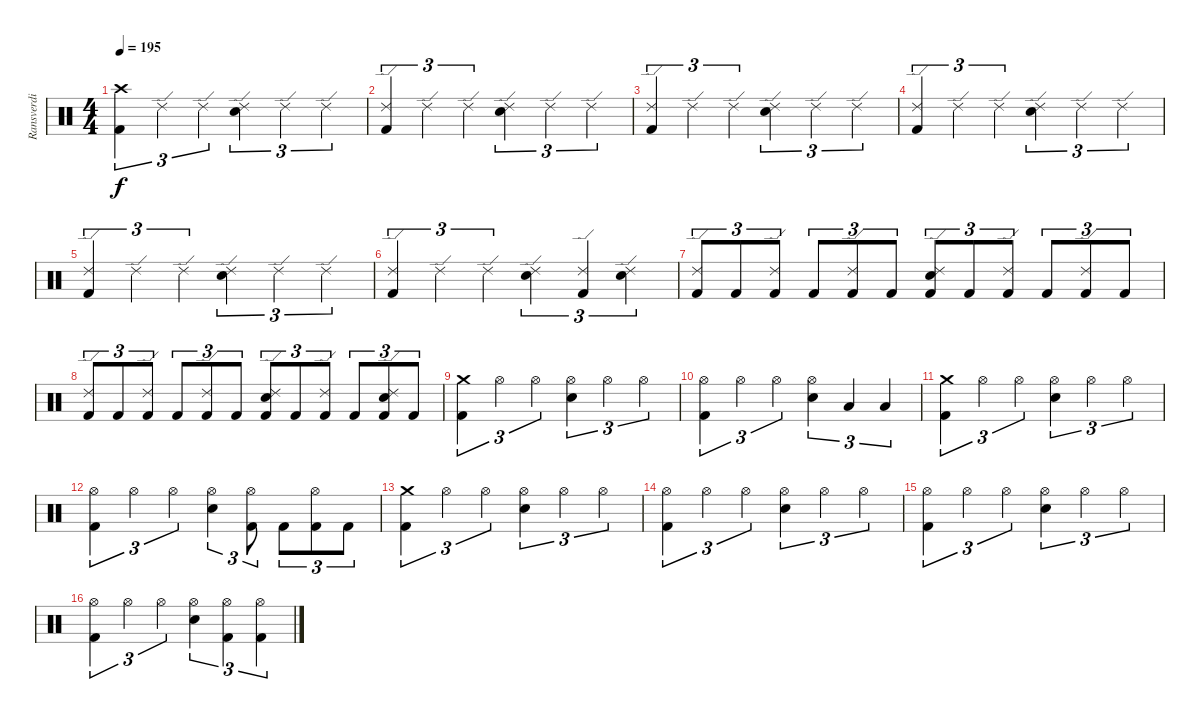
\track ("Ransverdi" "Ransverdi") {instrument percussion}
\staff {score}
\articulation defaults
\ts (4 4)
\tempo 195
\clef neutral
\ks c
("Crash high (hit)" "Kick (hit) 2").4{tu (3 2) dy f} "Ride (edge) 2".4{tu (3 2)} "Ride (edge) 2".4{tu (3 2)} ("Ride (edge) 2" "Snare (hit) 2").4{tu (3 2)} "Ride (edge) 2".4{tu (3 2)} "Ride (edge) 2".4{tu (3 2)} |
("Ride (edge) 2" "Kick (hit) 2").4{tu (3 2)} "Ride (edge) 2".4{tu (3 2)} "Ride (edge) 2".4{tu (3 2)} ("Ride (edge) 2" "Snare (hit) 2").4{tu (3 2)} "Ride (edge) 2".4{tu (3 2)} "Ride (edge) 2".4{tu (3 2)} |
("Ride (edge) 2" "Kick (hit) 2").4{tu (3 2)} "Ride (edge) 2".4{tu (3 2)} "Ride (edge) 2".4{tu (3 2)} ("Ride (edge) 2" "Snare (hit) 2").4{tu (3 2)} "Ride (edge) 2".4{tu (3 2)} "Ride (edge) 2".4{tu (3 2)} |
("Ride (edge) 2" "Kick (hit) 2").4{tu (3 2)} "Ride (edge) 2".4{tu (3 2)} "Ride (edge) 2".4{tu (3 2)} ("Ride (edge) 2" "Snare (hit) 2").4{tu (3 2)} "Ride (edge) 2".4{tu (3 2)} "Ride (edge) 2".4{tu (3 2)} |
("Ride (edge) 2" "Kick (hit) 2").4{tu (3 2)} "Ride (edge) 2".4{tu (3 2)} "Ride (edge) 2".4{tu (3 2)} ("Ride (edge) 2" "Snare (hit) 2").4{tu (3 2)} "Ride (edge) 2".4{tu (3 2)} "Ride (edge) 2".4{tu (3 2)} |
("Ride (edge) 2" "Kick (hit) 2").4{tu (3 2)} "Ride (edge) 2".4{tu (3 2)} "Ride (edge) 2".4{tu (3 2)} ("Ride (edge) 2" "Snare (hit) 2").4{tu (3 2)} ("Ride (edge) 2" "Kick (hit) 2").4{tu (3 2)} ("Ride (edge) 2" "Snare (hit) 2").4{tu (3 2)} |
("Ride (edge) 2" "Kick (hit) 2").8{tu (3 2)} "Kick (hit) 2".8{tu (3 2)} ("Ride (edge) 2" "Kick (hit) 2").8{tu (3 2)} "Kick (hit) 2".8{tu (3 2)} ("Ride (edge) 2" "Kick (hit) 2").8{tu (3 2)} "Kick (hit) 2".8{tu (3 2)} ("Ride (edge) 2" "Snare (hit) 2" "Kick (hit) 2").8{tu (3 2)} "Kick (hit) 2".8{tu (3 2)} ("Ride (edge) 2" "Kick (hit) 2").8{tu (3 2)} "Kick (hit) 2".8{tu (3 2)} ("Ride (edge) 2" "Kick (hit) 2").8{tu (3 2)} "Kick (hit) 2".8{tu (3 2)} |
("Ride (edge) 2" "Kick (hit) 2").8{tu (3 2)} "Kick (hit) 2".8{tu (3 2)} ("Ride (edge) 2" "Kick (hit) 2").8{tu (3 2)} "Kick (hit) 2".8{tu (3 2)} ("Ride (edge) 2" "Kick (hit) 2").8{tu (3 2)} "Kick (hit) 2".8{tu (3 2)} ("Ride (edge) 2" "Snare (hit) 2" "Kick (hit) 2").8{tu (3 2)} "Kick (hit) 2".8{tu (3 2)} ("Ride (edge) 2" "Kick (hit) 2").8{tu (3 2)} "Kick (hit) 2".8{tu (3 2)} ("Ride (edge) 2" "Snare (hit) 2" "Kick (hit) 2").8{tu (3 2)} "Kick (hit) 2".8{tu (3 2)} |
("Crash medium (hit)" "Kick (hit) 2").4{tu (3 2)} "Hi-Hat (open)".4{tu (3 2)} "Hi-Hat (open)".4{tu (3 2)} ("Hi-Hat (open)" "Snare (hit) 2").4{tu (3 2)} "Hi-Hat (open)".4{tu (3 2)} "Hi-Hat (open)".4{tu (3 2)} |
("Hi-Hat (open)" "Kick (hit) 2").4{tu (3 2)} "Hi-Hat (open)".4{tu (3 2)} "Hi-Hat (open)".4{tu (3 2)} ("Hi-Hat (open)" "Snare (hit) 2").4{tu (3 2)} "Low Tom (hit)".4{tu (3 2)} "Low Tom (hit)".4{tu (3 2)} |
("Crash medium (hit)" "Kick (hit) 2").4{tu (3 2)} "Hi-Hat (open)".4{tu (3 2)} "Hi-Hat (open)".4{tu (3 2)} ("Hi-Hat (open)" "Snare (hit) 2").4{tu (3 2)} "Hi-Hat (open)".4{tu (3 2)} "Hi-Hat (open)".4{tu (3 2)} |
("Hi-Hat (open)" "Kick (hit) 2").4{tu (3 2)} "Hi-Hat (open)".4{tu (3 2)} "Hi-Hat (open)".4{tu (3 2)} ("Hi-Hat (open)" "Snare (hit) 2").4{tu (3 2)} ("Hi-Hat (open)" "Kick (hit) 2").8{tu (3 2)} "Kick (hit) 2".8{tu (3 2)} ("Hi-Hat (open)" "Kick (hit) 2").8{tu (3 2)} "Kick (hit) 2".8{tu (3 2)} |
("Crash medium (hit)" "Kick (hit) 2").4{tu (3 2)} "Hi-Hat (open)".4{tu (3 2)} "Hi-Hat (open)".4{tu (3 2)} ("Hi-Hat (open)" "Snare (hit) 2").4{tu (3 2)} "Hi-Hat (open)".4{tu (3 2)} "Hi-Hat (open)".4{tu (3 2)} |
("Hi-Hat (open)" "Kick (hit) 2").4{tu (3 2)} "Hi-Hat (open)".4{tu (3 2)} "Hi-Hat (open)".4{tu (3 2)} ("Hi-Hat (open)" "Snare (hit) 2").4{tu (3 2)} "Hi-Hat (open)".4{tu (3 2)} "Hi-Hat (open)".4{tu (3 2)} |
("Hi-Hat (open)" "Kick (hit) 2").4{tu (3 2)} "Hi-Hat (open)".4{tu (3 2)} "Hi-Hat (open)".4{tu (3 2)} ("Hi-Hat (open)" "Snare (hit) 2").4{tu (3 2)} "Hi-Hat (open)".4{tu (3 2)} "Hi-Hat (open)".4{tu (3 2)} |
("Hi-Hat (open)" "Kick (hit) 2").4{tu (3 2)} "Hi-Hat (open)".4{tu (3 2)} "Hi-Hat (open)".4{tu (3 2)} ("Hi-Hat (open)" "Snare (hit) 2").4{tu (3 2)} ("Hi-Hat (open)" "Kick (hit) 2").4{tu (3 2)} ("Hi-Hat (open)" "Kick (hit) 2").4{tu (3 2)}
